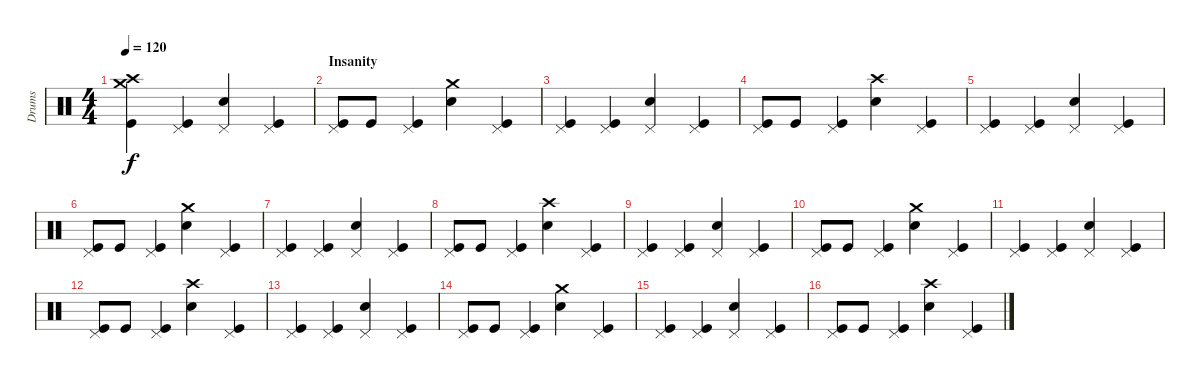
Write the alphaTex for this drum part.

\track ("Drums" "Drums") {instrument percussion}
\staff {score}
\articulation defaults
\ts (4 4)
\tempo 120
\clef neutral
\ks c
("Crash high (hit)" "Crash medium (hit)" "Kick (hit)").4{dy f} ("Pedal Hi-Hat (hit)" "Kick (hit)").4 ("Pedal Hi-Hat (hit)" "Snare (hit) 2").4 ("Pedal Hi-Hat (hit)" "Kick (hit)").4 |
\section ("" "Insanity")
("Pedal Hi-Hat (hit)" "Kick (hit)").8 "Kick (hit)".8 ("Pedal Hi-Hat (hit)" "Kick (hit)").4 ("Crash medium (hit)" "Snare (hit) 2").4 ("Pedal Hi-Hat (hit)" "Kick (hit)").4 |
("Pedal Hi-Hat (hit)" "Kick (hit)").4 ("Pedal Hi-Hat (hit)" "Kick (hit)").4 ("Pedal Hi-Hat (hit)" "Snare (hit) 2").4 ("Pedal Hi-Hat (hit)" "Kick (hit)").4 |
("Pedal Hi-Hat (hit)" "Kick (hit)").8 "Kick (hit)".8 ("Pedal Hi-Hat (hit)" "Kick (hit)").4 ("Crash high (hit)" "Snare (hit) 2").4 ("Pedal Hi-Hat (hit)" "Kick (hit)").4 |
("Pedal Hi-Hat (hit)" "Kick (hit)").4 ("Pedal Hi-Hat (hit)" "Kick (hit)").4 ("Pedal Hi-Hat (hit)" "Snare (hit) 2").4 ("Pedal Hi-Hat (hit)" "Kick (hit)").4 |
("Pedal Hi-Hat (hit)" "Kick (hit)").8 "Kick (hit)".8 ("Pedal Hi-Hat (hit)" "Kick (hit)").4 ("Crash medium (hit)" "Snare (hit) 2").4 ("Pedal Hi-Hat (hit)" "Kick (hit)").4 |
("Pedal Hi-Hat (hit)" "Kick (hit)").4 ("Pedal Hi-Hat (hit)" "Kick (hit)").4 ("Pedal Hi-Hat (hit)" "Snare (hit) 2").4 ("Pedal Hi-Hat (hit)" "Kick (hit)").4 |
("Pedal Hi-Hat (hit)" "Kick (hit)").8 "Kick (hit)".8 ("Pedal Hi-Hat (hit)" "Kick (hit)").4 ("Crash high (hit)" "Snare (hit) 2").4 ("Pedal Hi-Hat (hit)" "Kick (hit)").4 |
("Pedal Hi-Hat (hit)" "Kick (hit)").4 ("Pedal Hi-Hat (hit)" "Kick (hit)").4 ("Pedal Hi-Hat (hit)" "Snare (hit) 2").4 ("Pedal Hi-Hat (hit)" "Kick (hit)").4 |
("Pedal Hi-Hat (hit)" "Kick (hit)").8 "Kick (hit)".8 ("Pedal Hi-Hat (hit)" "Kick (hit)").4 ("Crash medium (hit)" "Snare (hit) 2").4 ("Pedal Hi-Hat (hit)" "Kick (hit)").4 |
("Pedal Hi-Hat (hit)" "Kick (hit)").4 ("Pedal Hi-Hat (hit)" "Kick (hit)").4 ("Pedal Hi-Hat (hit)" "Snare (hit) 2").4 ("Pedal Hi-Hat (hit)" "Kick (hit)").4 |
("Pedal Hi-Hat (hit)" "Kick (hit)").8 "Kick (hit)".8 ("Pedal Hi-Hat (hit)" "Kick (hit)").4 ("Crash high (hit)" "Snare (hit) 2").4 ("Pedal Hi-Hat (hit)" "Kick (hit)").4 |
("Pedal Hi-Hat (hit)" "Kick (hit)").4 ("Pedal Hi-Hat (hit)" "Kick (hit)").4 ("Pedal Hi-Hat (hit)" "Snare (hit) 2").4 ("Pedal Hi-Hat (hit)" "Kick (hit)").4 |
("Pedal Hi-Hat (hit)" "Kick (hit)").8 "Kick (hit)".8 ("Pedal Hi-Hat (hit)" "Kick (hit)").4 ("Crash medium (hit)" "Snare (hit) 2").4 ("Pedal Hi-Hat (hit)" "Kick (hit)").4 |
("Pedal Hi-Hat (hit)" "Kick (hit)").4 ("Pedal Hi-Hat (hit)" "Kick (hit)").4 ("Pedal Hi-Hat (hit)" "Snare (hit) 2").4 ("Pedal Hi-Hat (hit)" "Kick (hit)").4 |
("Pedal Hi-Hat (hit)" "Kick (hit)").8 "Kick (hit)".8 ("Pedal Hi-Hat (hit)" "Kick (hit)").4 ("Crash high (hit)" "Snare (hit) 2").4 ("Pedal Hi-Hat (hit)" "Kick (hit)").4
